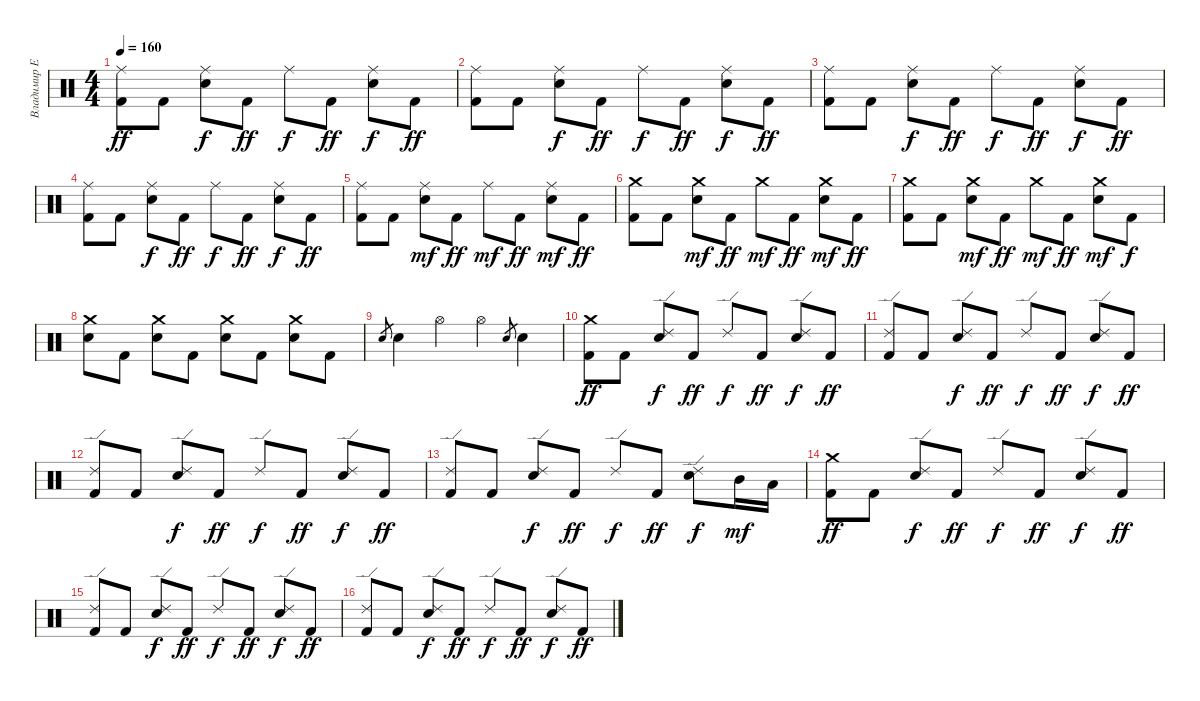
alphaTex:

\track ("Владимир Ермаков" "Владимир Е") {instrument percussion}
\staff {score}
\articulation defaults
\ts (4 4)
\tempo 160
\clef neutral
\ks c
("Ride (middle)" "Kick (hit) 2").8{dy ff} "Kick (hit) 2".8 ("Ride (middle)" "Electric Snare (hit)").8{dy f} "Kick (hit) 2".8{dy ff} "Ride (middle)".8{dy f} "Kick (hit) 2".8{dy ff} ("Ride (middle)" "Electric Snare (hit)").8{dy f} "Kick (hit) 2".8{dy ff} |
("Ride (middle)" "Kick (hit) 2").8 "Kick (hit) 2".8 ("Ride (middle)" "Electric Snare (hit)").8{dy f} "Kick (hit) 2".8{dy ff} "Ride (middle)".8{dy f} "Kick (hit) 2".8{dy ff} ("Ride (middle)" "Electric Snare (hit)").8{dy f} "Kick (hit) 2".8{dy ff} |
("Ride (middle)" "Kick (hit) 2").8 "Kick (hit) 2".8 ("Ride (middle)" "Electric Snare (hit)").8{dy f} "Kick (hit) 2".8{dy ff} "Ride (middle)".8{dy f} "Kick (hit) 2".8{dy ff} ("Ride (middle)" "Electric Snare (hit)").8{dy f} "Kick (hit) 2".8{dy ff} |
("Ride (middle)" "Kick (hit) 2").8 "Kick (hit) 2".8 ("Ride (middle)" "Electric Snare (hit)").8{dy f} "Kick (hit) 2".8{dy ff} "Ride (middle)".8{dy f} "Kick (hit) 2".8{dy ff} ("Ride (middle)" "Electric Snare (hit)").8{dy f} "Kick (hit) 2".8{dy ff} |
("Ride (middle)" "Kick (hit) 2").8 "Kick (hit) 2".8 ("Ride (middle)" "Electric Snare (hit)").8{dy mf} "Kick (hit) 2".8{dy ff} "Ride (middle)".8{dy mf} "Kick (hit) 2".8{dy ff} ("Ride (middle)" "Electric Snare (hit)").8{dy mf} "Kick (hit) 2".8{dy ff} |
("Crash medium (hit)" "Kick (hit) 2").8 "Kick (hit) 2".8 ("Crash medium (hit)" "Electric Snare (hit)").8{dy mf} "Kick (hit) 2".8{dy ff} "Crash medium (hit)".8{dy mf} "Kick (hit) 2".8{dy ff} ("Crash medium (hit)" "Electric Snare (hit)").8{dy mf} "Kick (hit) 2".8{dy ff} |
("Crash medium (hit)" "Kick (hit) 2").8 "Kick (hit) 2".8 ("Crash medium (hit)" "Electric Snare (hit)").8{dy mf} "Kick (hit) 2".8{dy ff} "Crash medium (hit)".8{dy mf} "Kick (hit) 2".8{dy ff} ("Crash medium (hit)" "Electric Snare (hit)").8{dy mf} "Kick (hit) 2".8{dy f} |
("Crash medium (hit)" "Electric Snare (hit)").8 "Kick (hit) 2".8 ("Crash medium (hit)" "Electric Snare (hit)").8 "Kick (hit) 2".8 ("Crash medium (hit)" "Electric Snare (hit)").8 "Kick (hit) 2".8 ("Crash medium (hit)" "Electric Snare (hit)").8 "Kick (hit) 2".8 |
"Electric Snare (hit)".8{gr} "Electric Snare (hit)".4 "Hi-Hat (open)".4 "Hi-Hat (open)".4 "Electric Snare (hit)".8{gr} "Electric Snare (hit)".4 |
("Crash medium (hit)" "Kick (hit) 2").8{dy ff} "Kick (hit) 2".8 ("Ride (edge) 2" "Electric Snare (hit)").8{dy f} "Kick (hit) 2".8{dy ff} "Ride (edge) 2".8{dy f} "Kick (hit) 2".8{dy ff} ("Ride (edge) 2" "Electric Snare (hit)").8{dy f} "Kick (hit) 2".8{dy ff} |
("Ride (edge) 2" "Kick (hit) 2").8 "Kick (hit) 2".8 ("Ride (edge) 2" "Electric Snare (hit)").8{dy f} "Kick (hit) 2".8{dy ff} "Ride (edge) 2".8{dy f} "Kick (hit) 2".8{dy ff} ("Ride (edge) 2" "Electric Snare (hit)").8{dy f} "Kick (hit) 2".8{dy ff} |
("Ride (edge) 2" "Kick (hit) 2").8 "Kick (hit) 2".8 ("Ride (edge) 2" "Electric Snare (hit)").8{dy f} "Kick (hit) 2".8{dy ff} "Ride (edge) 2".8{dy f} "Kick (hit) 2".8{dy ff} ("Ride (edge) 2" "Electric Snare (hit)").8{dy f} "Kick (hit) 2".8{dy ff} |
("Ride (edge) 2" "Kick (hit) 2").8 "Kick (hit) 2".8 ("Ride (edge) 2" "Electric Snare (hit)").8{dy f} "Kick (hit) 2".8{dy ff} "Ride (edge) 2".8{dy f} "Kick (hit) 2".8{dy ff} ("Ride (edge) 2" "Electric Snare (hit)").8{dy f} "Mid Tom (hit)".16{dy mf} "Low Tom (hit)".16 |
("Crash medium (hit)" "Kick (hit) 2").8{dy ff} "Kick (hit) 2".8 ("Ride (edge) 2" "Electric Snare (hit)").8{dy f} "Kick (hit) 2".8{dy ff} "Ride (edge) 2".8{dy f} "Kick (hit) 2".8{dy ff} ("Ride (edge) 2" "Electric Snare (hit)").8{dy f} "Kick (hit) 2".8{dy ff} |
("Ride (edge) 2" "Kick (hit) 2").8 "Kick (hit) 2".8 ("Ride (edge) 2" "Electric Snare (hit)").8{dy f} "Kick (hit) 2".8{dy ff} "Ride (edge) 2".8{dy f} "Kick (hit) 2".8{dy ff} ("Ride (edge) 2" "Electric Snare (hit)").8{dy f} "Kick (hit) 2".8{dy ff} |
("Ride (edge) 2" "Kick (hit) 2").8 "Kick (hit) 2".8 ("Ride (edge) 2" "Electric Snare (hit)").8{dy f} "Kick (hit) 2".8{dy ff} "Ride (edge) 2".8{dy f} "Kick (hit) 2".8{dy ff} ("Ride (edge) 2" "Electric Snare (hit)").8{dy f} "Kick (hit) 2".8{dy ff}
